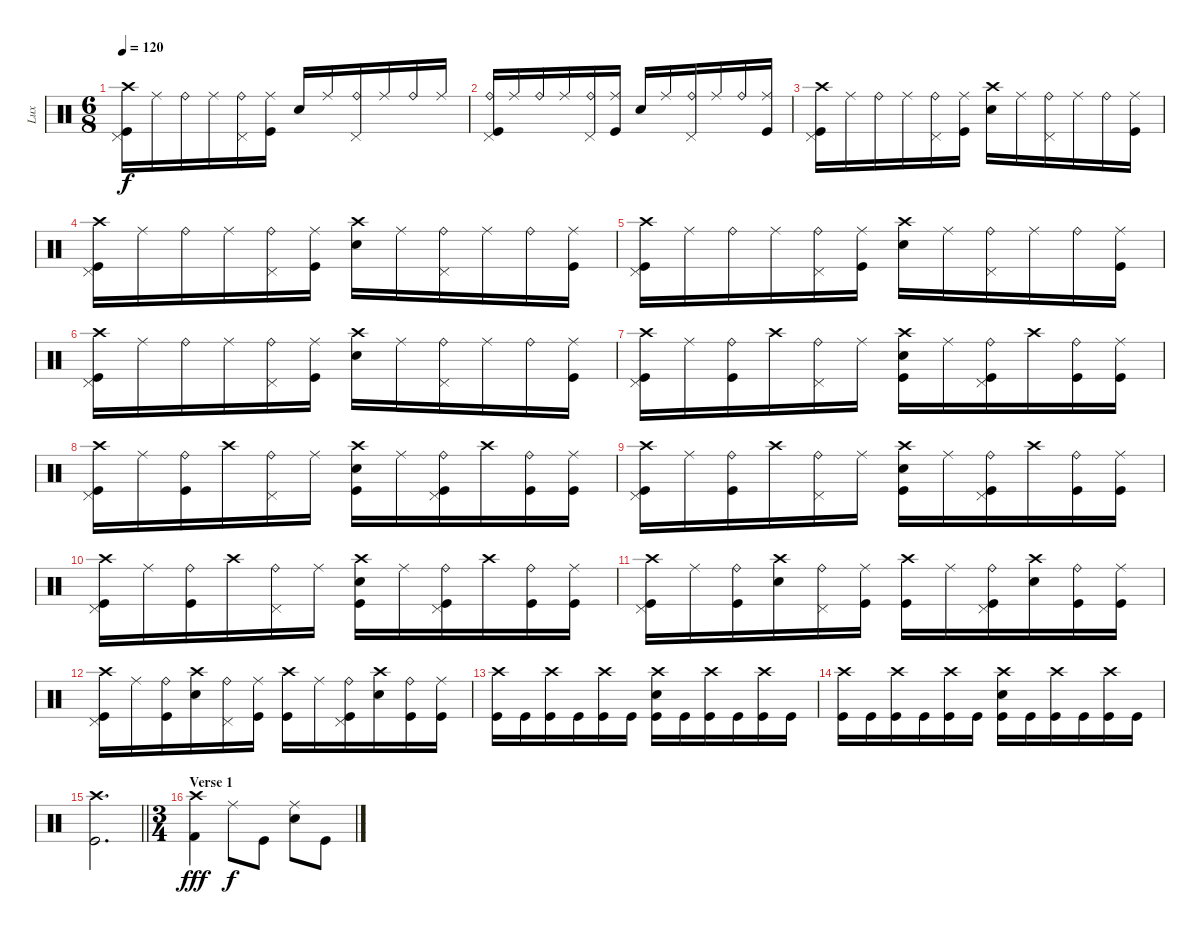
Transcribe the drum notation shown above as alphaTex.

\track ("Lux" "Lux") {solo instrument percussion}
\staff {score}
\articulation defaults
\ts (6 8)
\tempo 120
\clef neutral
\ks c
("Crash high (hit)" "Pedal Hi-Hat (hit)" "Kick (hit)").16{dy f} "Ride (middle)".16 "Ride (bell)".16 "Ride (middle)".16 ("Ride (bell)" "Pedal Hi-Hat (hit)").16 ("Ride (middle)" "Kick (hit)").16 "Snare (hit) 2".16 "Ride (middle)".16 ("Ride (bell)" "Pedal Hi-Hat (hit)").16 "Ride (middle)".16 "Ride (bell)".16 "Ride (middle)".16 |
("Ride (bell)" "Pedal Hi-Hat (hit)" "Kick (hit)").16 "Ride (middle)".16 "Ride (bell)".16 "Ride (middle)".16 ("Ride (bell)" "Pedal Hi-Hat (hit)").16 ("Ride (middle)" "Kick (hit)").16 "Snare (hit) 2".16 "Ride (middle)".16 ("Ride (bell)" "Pedal Hi-Hat (hit)").16 "Ride (middle)".16 "Ride (bell)".16 ("Ride (middle)" "Kick (hit)").16 |
("Crash high (hit)" "Pedal Hi-Hat (hit)" "Kick (hit)").16 "Ride (middle)".16 "Ride (bell)".16 "Ride (middle)".16 ("Ride (bell)" "Pedal Hi-Hat (hit)").16 ("Ride (middle)" "Kick (hit)").16 ("Crash high (hit)" "Snare (hit) 2").16 "Ride (middle)".16 ("Ride (bell)" "Pedal Hi-Hat (hit)").16 "Ride (middle)".16 "Ride (bell)".16 ("Ride (middle)" "Kick (hit)").16 |
("Crash high (hit)" "Pedal Hi-Hat (hit)" "Kick (hit)").16 "Ride (middle)".16 "Ride (bell)".16 "Ride (middle)".16 ("Ride (bell)" "Pedal Hi-Hat (hit)").16 ("Ride (middle)" "Kick (hit)").16 ("Crash high (hit)" "Snare (hit) 2").16 "Ride (middle)".16 ("Ride (bell)" "Pedal Hi-Hat (hit)").16 "Ride (middle)".16 "Ride (bell)".16 ("Ride (middle)" "Kick (hit)").16 |
("Crash high (hit)" "Pedal Hi-Hat (hit)" "Kick (hit)").16 "Ride (middle)".16 "Ride (bell)".16 "Ride (middle)".16 ("Ride (bell)" "Pedal Hi-Hat (hit)").16 ("Ride (middle)" "Kick (hit)").16 ("Crash high (hit)" "Snare (hit) 2").16 "Ride (middle)".16 ("Ride (bell)" "Pedal Hi-Hat (hit)").16 "Ride (middle)".16 "Ride (bell)".16 ("Ride (middle)" "Kick (hit)").16 |
("Crash high (hit)" "Pedal Hi-Hat (hit)" "Kick (hit)").16 "Ride (middle)".16 "Ride (bell)".16 "Ride (middle)".16 ("Ride (bell)" "Pedal Hi-Hat (hit)").16 ("Ride (middle)" "Kick (hit)").16 ("Crash high (hit)" "Snare (hit) 2").16 "Ride (middle)".16 ("Ride (bell)" "Pedal Hi-Hat (hit)").16 "Ride (middle)".16 "Ride (bell)".16 ("Ride (middle)" "Kick (hit)").16 |
("Crash high (hit)" "Pedal Hi-Hat (hit)" "Kick (hit)").16 "Ride (middle)".16 ("Ride (bell)" "Kick (hit)").16 "Crash high (hit)".16 ("Ride (bell)" "Pedal Hi-Hat (hit)").16 "Ride (middle)".16 ("Crash high (hit)" "Snare (hit) 2" "Kick (hit)").16 "Ride (middle)".16 ("Ride (bell)" "Pedal Hi-Hat (hit)" "Kick (hit)").16 "Crash high (hit)".16 ("Ride (bell)" "Kick (hit)").16 ("Ride (middle)" "Kick (hit)").16 |
("Crash high (hit)" "Pedal Hi-Hat (hit)" "Kick (hit)").16 "Ride (middle)".16 ("Ride (bell)" "Kick (hit)").16 "Crash high (hit)".16 ("Ride (bell)" "Pedal Hi-Hat (hit)").16 "Ride (middle)".16 ("Crash high (hit)" "Snare (hit) 2" "Kick (hit)").16 "Ride (middle)".16 ("Ride (bell)" "Pedal Hi-Hat (hit)" "Kick (hit)").16 "Crash high (hit)".16 ("Ride (bell)" "Kick (hit)").16 ("Ride (middle)" "Kick (hit)").16 |
("Crash high (hit)" "Pedal Hi-Hat (hit)" "Kick (hit)").16 "Ride (middle)".16 ("Ride (bell)" "Kick (hit)").16 "Crash high (hit)".16 ("Ride (bell)" "Pedal Hi-Hat (hit)").16 "Ride (middle)".16 ("Crash high (hit)" "Snare (hit) 2" "Kick (hit)").16 "Ride (middle)".16 ("Ride (bell)" "Pedal Hi-Hat (hit)" "Kick (hit)").16 "Crash high (hit)".16 ("Ride (bell)" "Kick (hit)").16 ("Ride (middle)" "Kick (hit)").16 |
("Crash high (hit)" "Pedal Hi-Hat (hit)" "Kick (hit)").16 "Ride (middle)".16 ("Ride (bell)" "Kick (hit)").16 "Crash high (hit)".16 ("Ride (bell)" "Pedal Hi-Hat (hit)").16 "Ride (middle)".16 ("Crash high (hit)" "Snare (hit) 2" "Kick (hit)").16 "Ride (middle)".16 ("Ride (bell)" "Pedal Hi-Hat (hit)" "Kick (hit)").16 "Crash high (hit)".16 ("Ride (bell)" "Kick (hit)").16 ("Ride (middle)" "Kick (hit)").16 |
("Crash high (hit)" "Pedal Hi-Hat (hit)" "Kick (hit)").16 "Ride (middle)".16 ("Ride (bell)" "Kick (hit)").16 ("Crash high (hit)" "Snare (hit) 2").16 ("Ride (bell)" "Pedal Hi-Hat (hit)").16 ("Ride (middle)" "Kick (hit)").16 ("Crash high (hit)" "Kick (hit)").16 "Ride (middle)".16 ("Ride (bell)" "Pedal Hi-Hat (hit)" "Kick (hit)").16 ("Crash high (hit)" "Snare (hit) 2").16 ("Ride (bell)" "Kick (hit)").16 ("Ride (middle)" "Kick (hit)").16 |
("Crash high (hit)" "Pedal Hi-Hat (hit)" "Kick (hit)").16 "Ride (middle)".16 ("Ride (bell)" "Kick (hit)").16 ("Crash high (hit)" "Snare (hit) 2").16 ("Ride (bell)" "Pedal Hi-Hat (hit)").16 ("Ride (middle)" "Kick (hit)").16 ("Crash high (hit)" "Kick (hit)").16 "Ride (middle)".16 ("Ride (bell)" "Pedal Hi-Hat (hit)" "Kick (hit)").16 ("Crash high (hit)" "Snare (hit) 2").16 ("Ride (bell)" "Kick (hit)").16 ("Ride (middle)" "Kick (hit)").16 |
("Crash high (hit)" "Kick (hit)").16 "Kick (hit)".16 ("Crash high (hit)" "Kick (hit)").16 "Kick (hit)".16 ("Crash high (hit)" "Kick (hit)").16 "Kick (hit)".16 ("Crash high (hit)" "Snare (hit) 2" "Kick (hit)").16 "Kick (hit)".16 ("Crash high (hit)" "Kick (hit)").16 "Kick (hit)".16 ("Crash high (hit)" "Kick (hit)").16 "Kick (hit)".16 |
("Crash high (hit)" "Kick (hit)").16 "Kick (hit)".16 ("Crash high (hit)" "Kick (hit)").16 "Kick (hit)".16 ("Crash high (hit)" "Kick (hit)").16 "Kick (hit)".16 ("Crash high (hit)" "Snare (hit) 2" "Kick (hit)").16 "Kick (hit)".16 ("Crash high (hit)" "Kick (hit)").16 "Kick (hit)".16 ("Crash high (hit)" "Kick (hit)").16 "Kick (hit)".16 |
\barLineRight lightlight
("Crash high (hit)" "Kick (hit)").2{d} |
\ts (3 4)
\section ("" "Verse 1")
("Crash high (hit)" "Kick (hit) 2").4{dy fff} "Ride (middle)".8{dy f} "Kick (hit)".8 ("Ride (middle)" "Snare (hit) 2").8 "Kick (hit)".8
